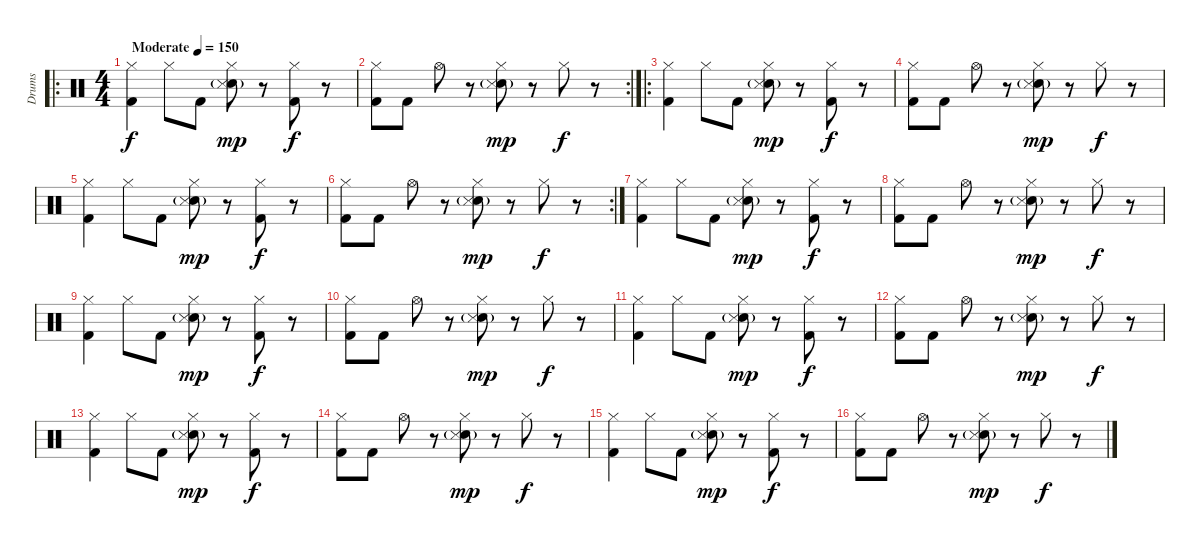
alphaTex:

\track ("Drums" "Drums") {instrument percussion}
\staff {score}
\articulation defaults
\ro
\ts (4 4)
\tempo (150 "Moderate")
\clef neutral
\ks c
("Hi-Hat (closed)" "Kick (hit) 2").4{dy f} "Hi-Hat (closed)".8 "Kick (hit) 2".8 ("Hi-Hat (closed)" "Snare (hit) 2"{g} "Snare (side stick) 3").8{dy mp} r.8 ("Hi-Hat (closed)" "Kick (hit) 2").8{dy f} r.8 |
\rc 2
("Hi-Hat (closed)" "Kick (hit) 2").8 "Kick (hit) 2".8 "Hi-Hat (open)".8 r.8 ("Hi-Hat (closed)" "Snare (hit) 2"{g} "Snare (side stick) 3").8{dy mp} r.8 "Hi-Hat (closed)".8{dy f} r.8 |
\ro
("Hi-Hat (closed)" "Kick (hit) 2").4 "Hi-Hat (closed)".8 "Kick (hit) 2".8 ("Hi-Hat (closed)" "Snare (hit) 2"{g} "Snare (side stick) 3").8{dy mp} r.8 ("Hi-Hat (closed)" "Kick (hit) 2").8{dy f} r.8 |
("Hi-Hat (closed)" "Kick (hit) 2").8 "Kick (hit) 2".8 "Hi-Hat (open)".8 r.8 ("Hi-Hat (closed)" "Snare (hit) 2"{g} "Snare (side stick) 3").8{dy mp} r.8 "Hi-Hat (closed)".8{dy f} r.8 |
("Hi-Hat (closed)" "Kick (hit) 2").4 "Hi-Hat (closed)".8 "Kick (hit) 2".8 ("Hi-Hat (closed)" "Snare (hit) 2"{g} "Snare (side stick) 3").8{dy mp} r.8 ("Hi-Hat (closed)" "Kick (hit) 2").8{dy f} r.8 |
\rc 2
("Hi-Hat (closed)" "Kick (hit) 2").8 "Kick (hit) 2".8 "Hi-Hat (open)".8 r.8 ("Hi-Hat (closed)" "Snare (hit) 2"{g} "Snare (side stick) 3").8{dy mp} r.8 "Hi-Hat (closed)".8{dy f} r.8 |
("Hi-Hat (closed)" "Kick (hit) 2").4 "Hi-Hat (closed)".8 "Kick (hit) 2".8 ("Hi-Hat (closed)" "Snare (hit) 2"{g} "Snare (side stick) 3").8{dy mp} r.8 ("Hi-Hat (closed)" "Kick (hit) 2").8{dy f} r.8 |
("Hi-Hat (closed)" "Kick (hit) 2").8 "Kick (hit) 2".8 "Hi-Hat (open)".8 r.8 ("Hi-Hat (closed)" "Snare (hit) 2"{g} "Snare (side stick) 3").8{dy mp} r.8 "Hi-Hat (closed)".8{dy f} r.8 |
("Hi-Hat (closed)" "Kick (hit) 2").4 "Hi-Hat (closed)".8 "Kick (hit) 2".8 ("Hi-Hat (closed)" "Snare (hit) 2"{g} "Snare (side stick) 3").8{dy mp} r.8 ("Hi-Hat (closed)" "Kick (hit) 2").8{dy f} r.8 |
("Hi-Hat (closed)" "Kick (hit) 2").8 "Kick (hit) 2".8 "Hi-Hat (open)".8 r.8 ("Hi-Hat (closed)" "Snare (hit) 2"{g} "Snare (side stick) 3").8{dy mp} r.8 "Hi-Hat (closed)".8{dy f} r.8 |
("Hi-Hat (closed)" "Kick (hit) 2").4 "Hi-Hat (closed)".8 "Kick (hit) 2".8 ("Hi-Hat (closed)" "Snare (hit) 2"{g} "Snare (side stick) 3").8{dy mp} r.8 ("Hi-Hat (closed)" "Kick (hit) 2").8{dy f} r.8 |
("Hi-Hat (closed)" "Kick (hit) 2").8 "Kick (hit) 2".8 "Hi-Hat (open)".8 r.8 ("Hi-Hat (closed)" "Snare (hit) 2"{g} "Snare (side stick) 3").8{dy mp} r.8 "Hi-Hat (closed)".8{dy f} r.8 |
("Hi-Hat (closed)" "Kick (hit) 2").4 "Hi-Hat (closed)".8 "Kick (hit) 2".8 ("Hi-Hat (closed)" "Snare (hit) 2"{g} "Snare (side stick) 3").8{dy mp} r.8 ("Hi-Hat (closed)" "Kick (hit) 2").8{dy f} r.8 |
("Hi-Hat (closed)" "Kick (hit) 2").8 "Kick (hit) 2".8 "Hi-Hat (open)".8 r.8 ("Hi-Hat (closed)" "Snare (hit) 2"{g} "Snare (side stick) 3").8{dy mp} r.8 "Hi-Hat (closed)".8{dy f} r.8 |
("Hi-Hat (closed)" "Kick (hit) 2").4 "Hi-Hat (closed)".8 "Kick (hit) 2".8 ("Hi-Hat (closed)" "Snare (hit) 2"{g} "Snare (side stick) 3").8{dy mp} r.8 ("Hi-Hat (closed)" "Kick (hit) 2").8{dy f} r.8 |
("Hi-Hat (closed)" "Kick (hit) 2").8 "Kick (hit) 2".8 "Hi-Hat (open)".8 r.8 ("Hi-Hat (closed)" "Snare (hit) 2"{g} "Snare (side stick) 3").8{dy mp} r.8 "Hi-Hat (closed)".8{dy f} r.8
